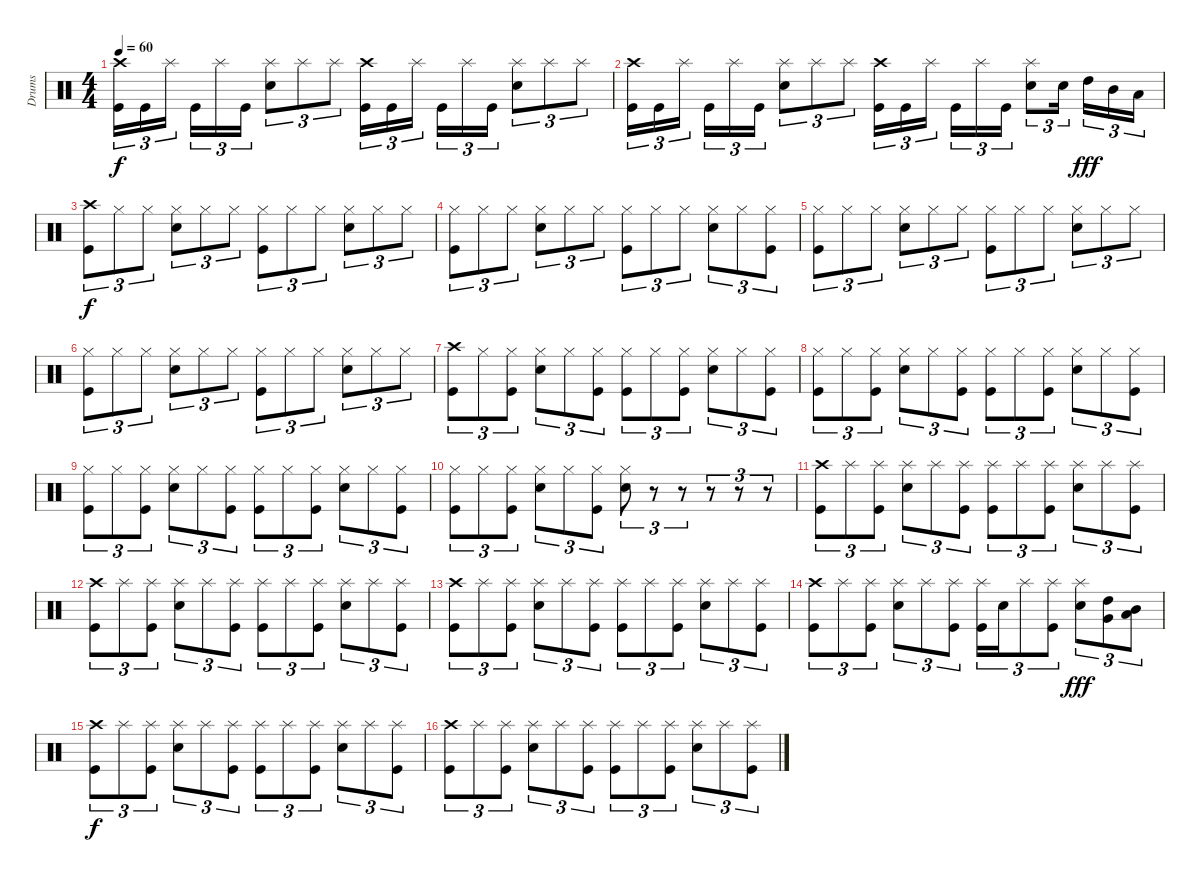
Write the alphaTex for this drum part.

\track ("Drums" "Drums") {instrument percussion}
\staff {score}
\articulation defaults
\ts (4 4)
\tempo 60
\clef neutral
\ks c
("Crash high (hit)" "Kick (hit)").16{tu (3 2) dy f} "Kick (hit)".16{tu (3 2)} "Splash (hit)".16{tu (3 2) beam splitsecondary} "Kick (hit)".16{tu (3 2)} "Splash (hit)".16{tu (3 2)} "Kick (hit)".16{tu (3 2)} ("Splash (hit)" "Electric Snare (hit)").8{tu (3 2)} "Splash (hit)".8{tu (3 2)} "Splash (hit)".8{tu (3 2)} ("Crash high (hit)" "Kick (hit)").16{tu (3 2)} "Kick (hit)".16{tu (3 2)} "Splash (hit)".16{tu (3 2) beam splitsecondary} "Kick (hit)".16{tu (3 2)} "Splash (hit)".16{tu (3 2)} "Kick (hit)".16{tu (3 2)} ("Splash (hit)" "Electric Snare (hit)").8{tu (3 2)} "Splash (hit)".8{tu (3 2)} "Splash (hit)".8{tu (3 2)} |
("Crash high (hit)" "Kick (hit)").16{tu (3 2)} "Kick (hit)".16{tu (3 2)} "Splash (hit)".16{tu (3 2) beam splitsecondary} "Kick (hit)".16{tu (3 2)} "Splash (hit)".16{tu (3 2)} "Kick (hit)".16{tu (3 2)} ("Splash (hit)" "Electric Snare (hit)").8{tu (3 2)} "Splash (hit)".8{tu (3 2)} "Splash (hit)".8{tu (3 2)} ("Crash high (hit)" "Kick (hit)").16{tu (3 2)} "Kick (hit)".16{tu (3 2)} "Splash (hit)".16{tu (3 2) beam splitsecondary} "Kick (hit)".16{tu (3 2)} "Splash (hit)".16{tu (3 2)} "Kick (hit)".16{tu (3 2)} ("Splash (hit)" "Electric Snare (hit)").8{tu (3 2)} "Electric Snare (hit)".16{tu (3 2) beam splitsecondary} "High Tom (hit)".16{tu (3 2) dy fff} "Mid Tom (hit)".16{tu (3 2)} "Low Floor Tom (hit)".16{tu (3 2)} |
("Crash high (hit)" "Kick (hit)").8{tu (3 2) dy f} "Hi-Hat (closed)".8{tu (3 2)} "Hi-Hat (closed)".8{tu (3 2)} ("Hi-Hat (closed)" "Electric Snare (hit)").8{tu (3 2)} "Hi-Hat (closed)".8{tu (3 2)} "Hi-Hat (closed)".8{tu (3 2)} ("Hi-Hat (closed)" "Kick (hit)").8{tu (3 2)} "Hi-Hat (closed)".8{tu (3 2)} "Hi-Hat (closed)".8{tu (3 2)} ("Hi-Hat (closed)" "Electric Snare (hit)").8{tu (3 2)} "Hi-Hat (closed)".8{tu (3 2)} "Hi-Hat (closed)".8{tu (3 2)} |
("Hi-Hat (closed)" "Kick (hit)").8{tu (3 2)} "Hi-Hat (closed)".8{tu (3 2)} "Hi-Hat (closed)".8{tu (3 2)} ("Hi-Hat (closed)" "Electric Snare (hit)").8{tu (3 2)} "Hi-Hat (closed)".8{tu (3 2)} "Hi-Hat (closed)".8{tu (3 2)} ("Hi-Hat (closed)" "Kick (hit)").8{tu (3 2)} "Hi-Hat (closed)".8{tu (3 2)} "Hi-Hat (closed)".8{tu (3 2)} ("Hi-Hat (closed)" "Electric Snare (hit)").8{tu (3 2)} "Hi-Hat (closed)".8{tu (3 2)} ("Hi-Hat (closed)" "Kick (hit)").8{tu (3 2)} |
("Hi-Hat (closed)" "Kick (hit)").8{tu (3 2)} "Hi-Hat (closed)".8{tu (3 2)} "Hi-Hat (closed)".8{tu (3 2)} ("Hi-Hat (closed)" "Electric Snare (hit)").8{tu (3 2)} "Hi-Hat (closed)".8{tu (3 2)} "Hi-Hat (closed)".8{tu (3 2)} ("Hi-Hat (closed)" "Kick (hit)").8{tu (3 2)} "Hi-Hat (closed)".8{tu (3 2)} "Hi-Hat (closed)".8{tu (3 2)} ("Hi-Hat (closed)" "Electric Snare (hit)").8{tu (3 2)} "Hi-Hat (closed)".8{tu (3 2)} "Hi-Hat (closed)".8{tu (3 2)} |
("Hi-Hat (closed)" "Kick (hit)").8{tu (3 2)} "Hi-Hat (closed)".8{tu (3 2)} "Hi-Hat (closed)".8{tu (3 2)} ("Hi-Hat (closed)" "Electric Snare (hit)").8{tu (3 2)} "Hi-Hat (closed)".8{tu (3 2)} "Hi-Hat (closed)".8{tu (3 2)} ("Hi-Hat (closed)" "Kick (hit)").8{tu (3 2)} "Hi-Hat (closed)".8{tu (3 2)} "Hi-Hat (closed)".8{tu (3 2)} ("Hi-Hat (closed)" "Electric Snare (hit)").8{tu (3 2)} "Hi-Hat (closed)".8{tu (3 2)} "Hi-Hat (closed)".8{tu (3 2)} |
("Crash high (hit)" "Kick (hit)").8{tu (3 2)} "Hi-Hat (closed)".8{tu (3 2)} ("Hi-Hat (closed)" "Kick (hit)").8{tu (3 2)} ("Hi-Hat (closed)" "Electric Snare (hit)").8{tu (3 2)} "Hi-Hat (closed)".8{tu (3 2)} ("Hi-Hat (closed)" "Kick (hit)").8{tu (3 2)} ("Hi-Hat (closed)" "Kick (hit)").8{tu (3 2)} "Hi-Hat (closed)".8{tu (3 2)} ("Hi-Hat (closed)" "Kick (hit)").8{tu (3 2)} ("Hi-Hat (closed)" "Electric Snare (hit)").8{tu (3 2)} "Hi-Hat (closed)".8{tu (3 2)} ("Hi-Hat (closed)" "Kick (hit)").8{tu (3 2)} |
("Hi-Hat (closed)" "Kick (hit)").8{tu (3 2)} "Hi-Hat (closed)".8{tu (3 2)} ("Hi-Hat (closed)" "Kick (hit)").8{tu (3 2)} ("Hi-Hat (closed)" "Electric Snare (hit)").8{tu (3 2)} "Hi-Hat (closed)".8{tu (3 2)} ("Hi-Hat (closed)" "Kick (hit)").8{tu (3 2)} ("Hi-Hat (closed)" "Kick (hit)").8{tu (3 2)} "Hi-Hat (closed)".8{tu (3 2)} ("Hi-Hat (closed)" "Kick (hit)").8{tu (3 2)} ("Hi-Hat (closed)" "Electric Snare (hit)").8{tu (3 2)} "Hi-Hat (closed)".8{tu (3 2)} ("Hi-Hat (closed)" "Kick (hit)").8{tu (3 2)} |
("Hi-Hat (closed)" "Kick (hit)").8{tu (3 2)} "Hi-Hat (closed)".8{tu (3 2)} ("Hi-Hat (closed)" "Kick (hit)").8{tu (3 2)} ("Hi-Hat (closed)" "Electric Snare (hit)").8{tu (3 2)} "Hi-Hat (closed)".8{tu (3 2)} ("Hi-Hat (closed)" "Kick (hit)").8{tu (3 2)} ("Hi-Hat (closed)" "Kick (hit)").8{tu (3 2)} "Hi-Hat (closed)".8{tu (3 2)} ("Hi-Hat (closed)" "Kick (hit)").8{tu (3 2)} ("Hi-Hat (closed)" "Electric Snare (hit)").8{tu (3 2)} "Hi-Hat (closed)".8{tu (3 2)} ("Hi-Hat (closed)" "Kick (hit)").8{tu (3 2)} |
("Hi-Hat (closed)" "Kick (hit)").8{tu (3 2)} "Hi-Hat (closed)".8{tu (3 2)} ("Hi-Hat (closed)" "Kick (hit)").8{tu (3 2)} ("Hi-Hat (closed)" "Electric Snare (hit)").8{tu (3 2)} "Hi-Hat (closed)".8{tu (3 2)} ("Hi-Hat (closed)" "Kick (hit)").8{tu (3 2)} ("Hi-Hat (closed)" "Electric Snare (hit)").8{tu (3 2)} r.8{tu (3 2)} r.8{tu (3 2)} r.8{tu (3 2)} r.8{tu (3 2)} r.8{tu (3 2)} |
("Crash high (hit)" "Kick (hit)").8{tu (3 2)} "Splash (hit)".8{tu (3 2)} ("Splash (hit)" "Kick (hit)").8{tu (3 2)} ("Splash (hit)" "Electric Snare (hit)").8{tu (3 2)} "Splash (hit)".8{tu (3 2)} ("Splash (hit)" "Kick (hit)").8{tu (3 2)} ("Splash (hit)" "Kick (hit)").8{tu (3 2)} "Splash (hit)".8{tu (3 2)} ("Splash (hit)" "Kick (hit)").8{tu (3 2)} ("Splash (hit)" "Electric Snare (hit)").8{tu (3 2)} "Splash (hit)".8{tu (3 2)} ("Splash (hit)" "Kick (hit)").8{tu (3 2)} |
("Crash high (hit)" "Kick (hit)").8{tu (3 2)} "Splash (hit)".8{tu (3 2)} ("Splash (hit)" "Kick (hit)").8{tu (3 2)} ("Splash (hit)" "Electric Snare (hit)").8{tu (3 2)} "Splash (hit)".8{tu (3 2)} ("Splash (hit)" "Kick (hit)").8{tu (3 2)} ("Splash (hit)" "Kick (hit)").8{tu (3 2)} "Splash (hit)".8{tu (3 2)} ("Splash (hit)" "Kick (hit)").8{tu (3 2)} ("Splash (hit)" "Electric Snare (hit)").8{tu (3 2)} "Splash (hit)".8{tu (3 2)} ("Splash (hit)" "Kick (hit)").8{tu (3 2)} |
("Crash high (hit)" "Kick (hit)").8{tu (3 2)} "Splash (hit)".8{tu (3 2)} ("Splash (hit)" "Kick (hit)").8{tu (3 2)} ("Splash (hit)" "Electric Snare (hit)").8{tu (3 2)} "Splash (hit)".8{tu (3 2)} ("Splash (hit)" "Kick (hit)").8{tu (3 2)} ("Splash (hit)" "Kick (hit)").8{tu (3 2)} "Splash (hit)".8{tu (3 2)} ("Splash (hit)" "Kick (hit)").8{tu (3 2)} ("Splash (hit)" "Electric Snare (hit)").8{tu (3 2)} "Splash (hit)".8{tu (3 2)} ("Splash (hit)" "Kick (hit)").8{tu (3 2)} |
("Crash high (hit)" "Kick (hit)").8{tu (3 2)} "Splash (hit)".8{tu (3 2)} ("Splash (hit)" "Kick (hit)").8{tu (3 2)} ("Splash (hit)" "Electric Snare (hit)").8{tu (3 2)} "Splash (hit)".8{tu (3 2)} ("Splash (hit)" "Kick (hit)").8{tu (3 2)} ("Splash (hit)" "Kick (hit)").16{tu (3 2)} "Electric Snare (hit)".16{tu (3 2)} "Splash (hit)".8{tu (3 2)} ("Splash (hit)" "Kick (hit)").8{tu (3 2)} ("Splash (hit)" "Electric Snare (hit)").8{tu (3 2) dy fff} ("High Tom (hit)" "Very Low Tom (hit)").8{tu (3 2)} ("Mid Tom (hit)" "Low Floor Tom (hit)").8{tu (3 2)} |
("Crash high (hit)" "Kick (hit)").8{tu (3 2) dy f} "Splash (hit)".8{tu (3 2)} ("Splash (hit)" "Kick (hit)").8{tu (3 2)} ("Splash (hit)" "Electric Snare (hit)").8{tu (3 2)} "Splash (hit)".8{tu (3 2)} ("Splash (hit)" "Kick (hit)").8{tu (3 2)} ("Splash (hit)" "Kick (hit)").8{tu (3 2)} "Splash (hit)".8{tu (3 2)} ("Splash (hit)" "Kick (hit)").8{tu (3 2)} ("Splash (hit)" "Electric Snare (hit)").8{tu (3 2)} "Splash (hit)".8{tu (3 2)} ("Splash (hit)" "Kick (hit)").8{tu (3 2)} |
("Crash high (hit)" "Kick (hit)").8{tu (3 2)} "Splash (hit)".8{tu (3 2)} ("Splash (hit)" "Kick (hit)").8{tu (3 2)} ("Splash (hit)" "Electric Snare (hit)").8{tu (3 2)} "Splash (hit)".8{tu (3 2)} ("Splash (hit)" "Kick (hit)").8{tu (3 2)} ("Splash (hit)" "Kick (hit)").8{tu (3 2)} "Splash (hit)".8{tu (3 2)} ("Splash (hit)" "Kick (hit)").8{tu (3 2)} ("Splash (hit)" "Electric Snare (hit)").8{tu (3 2)} "Splash (hit)".8{tu (3 2)} ("Splash (hit)" "Kick (hit)").8{tu (3 2)}
